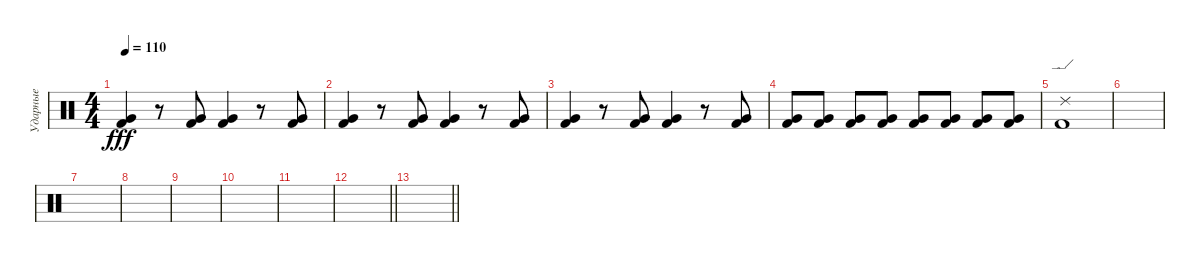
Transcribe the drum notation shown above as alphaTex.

\track ("Ударные" "Ударные") {mute instrument percussion}
\staff {score}
\articulation defaults
\ts (4 4)
\tempo 110
\clef neutral
\ks c
("Very Low Tom (hit)" "Kick (hit) 2").4{dy fff} r.8 ("Very Low Tom (hit)" "Kick (hit) 2").8 ("Very Low Tom (hit)" "Kick (hit) 2").4 r.8 ("Very Low Tom (hit)" "Kick (hit) 2").8 |
("Very Low Tom (hit)" "Kick (hit) 2").4 r.8 ("Very Low Tom (hit)" "Kick (hit) 2").8 ("Very Low Tom (hit)" "Kick (hit) 2").4 r.8 ("Very Low Tom (hit)" "Kick (hit) 2").8 |
("Very Low Tom (hit)" "Kick (hit) 2").4 r.8 ("Very Low Tom (hit)" "Kick (hit) 2").8 ("Very Low Tom (hit)" "Kick (hit) 2").4 r.8 ("Very Low Tom (hit)" "Kick (hit) 2").8 |
("Very Low Tom (hit)" "Kick (hit) 2").8 ("Very Low Tom (hit)" "Kick (hit) 2").8 ("Very Low Tom (hit)" "Kick (hit) 2").8 ("Very Low Tom (hit)" "Kick (hit) 2").8 ("Very Low Tom (hit)" "Kick (hit) 2").8 ("Very Low Tom (hit)" "Kick (hit) 2").8 ("Very Low Tom (hit)" "Kick (hit) 2").8 ("Very Low Tom (hit)" "Kick (hit) 2").8 |
("Ride (edge) 2" "Kick (hit) 2").1 |
|
|
|
|
|
|
\barLineRight lightlight
|
\barLineRight lightlight
